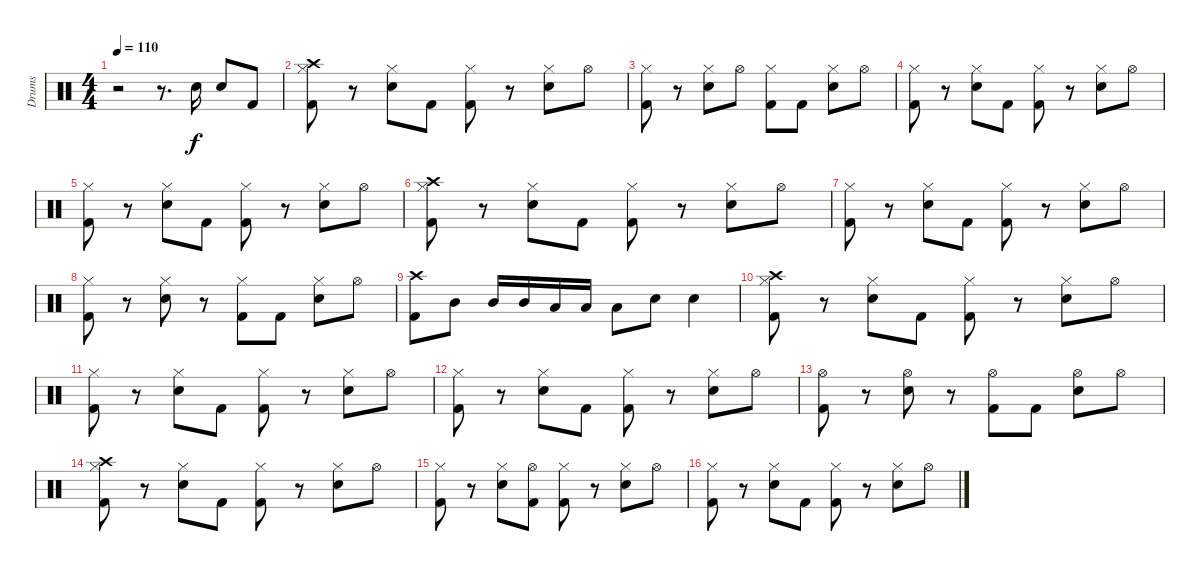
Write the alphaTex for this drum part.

\track ("Drums" "Drums") {instrument percussion}
\staff {score}
\articulation defaults
\ts (4 4)
\tempo 110
\clef neutral
\ks c
r.2{dy f} r.8{d} "Snare (hit) 2".16 "Snare (hit) 2".8 "Kick (hit) 2".8 |
("Hi-Hat (closed)" "Kick (hit) 2" "Crash high (hit)").8 r.8 ("Hi-Hat (closed)" "Snare (hit) 2").8 "Kick (hit) 2".8 ("Hi-Hat (closed)" "Kick (hit) 2").8 r.8 ("Hi-Hat (closed)" "Snare (hit) 2").8 "Hi-Hat (open)".8 |
("Hi-Hat (closed)" "Kick (hit) 2").8 r.8 ("Hi-Hat (closed)" "Snare (hit) 2").8 "Hi-Hat (open)".8 ("Hi-Hat (closed)" "Kick (hit) 2").8 "Kick (hit) 2".8 ("Hi-Hat (closed)" "Snare (hit) 2").8 "Hi-Hat (open)".8 |
("Hi-Hat (closed)" "Kick (hit) 2").8 r.8 ("Hi-Hat (closed)" "Snare (hit) 2").8 "Kick (hit) 2".8 ("Hi-Hat (closed)" "Kick (hit) 2").8 r.8 ("Hi-Hat (closed)" "Snare (hit) 2").8 "Hi-Hat (open)".8 |
("Hi-Hat (closed)" "Kick (hit) 2").8 r.8 ("Hi-Hat (closed)" "Snare (hit) 2").8 "Kick (hit) 2".8 ("Hi-Hat (closed)" "Kick (hit) 2").8 r.8 ("Hi-Hat (closed)" "Snare (hit) 2").8 "Hi-Hat (open)".8 |
("Hi-Hat (closed)" "Kick (hit) 2" "Crash high (hit)").8 r.8 ("Hi-Hat (closed)" "Snare (hit) 2").8 "Kick (hit) 2".8 ("Hi-Hat (closed)" "Kick (hit) 2").8 r.8 ("Hi-Hat (closed)" "Snare (hit) 2").8 "Hi-Hat (open)".8 |
("Hi-Hat (closed)" "Kick (hit) 2").8 r.8 ("Hi-Hat (closed)" "Snare (hit) 2").8 "Kick (hit) 2".8 ("Hi-Hat (closed)" "Kick (hit) 2").8 r.8 ("Hi-Hat (closed)" "Snare (hit) 2").8 "Hi-Hat (open)".8 |
("Hi-Hat (closed)" "Kick (hit) 2").8 r.8 ("Hi-Hat (closed)" "Snare (hit) 2").8 r.8 ("Hi-Hat (closed)" "Kick (hit) 2").8 "Kick (hit) 2".8 ("Hi-Hat (closed)" "Snare (hit) 2").8 "Hi-Hat (open)".8 |
("Kick (hit) 2" "Crash high (hit)").8 "Mid Tom (hit)".8 "Mid Tom (hit)".16 "Mid Tom (hit)".16 "Low Tom (hit)".16 "Low Tom (hit)".16 "Low Tom (hit)".8 "Snare (hit) 2".8 "Snare (hit) 2".4 |
("Hi-Hat (closed)" "Kick (hit) 2" "Crash high (hit)").8 r.8 ("Hi-Hat (closed)" "Snare (hit) 2").8 "Kick (hit) 2".8 ("Hi-Hat (closed)" "Kick (hit) 2").8 r.8 ("Hi-Hat (closed)" "Snare (hit) 2").8 "Hi-Hat (open)".8 |
("Hi-Hat (closed)" "Kick (hit) 2").8 r.8 ("Hi-Hat (closed)" "Snare (hit) 2").8 "Kick (hit) 2".8 ("Hi-Hat (closed)" "Kick (hit) 2").8 r.8 ("Hi-Hat (closed)" "Snare (hit) 2").8 "Hi-Hat (open)".8 |
("Hi-Hat (closed)" "Kick (hit) 2").8 r.8 ("Hi-Hat (closed)" "Snare (hit) 2").8 "Kick (hit) 2".8 ("Hi-Hat (closed)" "Kick (hit) 2").8 r.8 ("Hi-Hat (closed)" "Snare (hit) 2").8 "Hi-Hat (open)".8 |
("Hi-Hat (open)" "Kick (hit) 2").8 r.8 ("Hi-Hat (open)" "Snare (hit) 2").8 r.8 ("Hi-Hat (open)" "Kick (hit) 2").8 "Kick (hit) 2".8 ("Hi-Hat (open)" "Snare (hit) 2").8 "Hi-Hat (open)".8 |
("Hi-Hat (closed)" "Kick (hit) 2" "Crash high (hit)").8 r.8 ("Hi-Hat (closed)" "Snare (hit) 2").8 "Kick (hit) 2".8 ("Hi-Hat (closed)" "Kick (hit) 2").8 r.8 ("Hi-Hat (closed)" "Snare (hit) 2").8 "Hi-Hat (open)".8 |
("Hi-Hat (closed)" "Kick (hit) 2").8 r.8 ("Hi-Hat (closed)" "Snare (hit) 2").8 ("Hi-Hat (open)" "Kick (hit) 2").8 ("Hi-Hat (closed)" "Kick (hit) 2").8 r.8 ("Hi-Hat (closed)" "Snare (hit) 2").8 "Hi-Hat (open)".8 |
("Hi-Hat (closed)" "Kick (hit) 2").8 r.8 ("Hi-Hat (closed)" "Snare (hit) 2").8 "Kick (hit) 2".8 ("Hi-Hat (closed)" "Kick (hit) 2").8 r.8 ("Hi-Hat (closed)" "Snare (hit) 2").8 "Hi-Hat (open)".8
